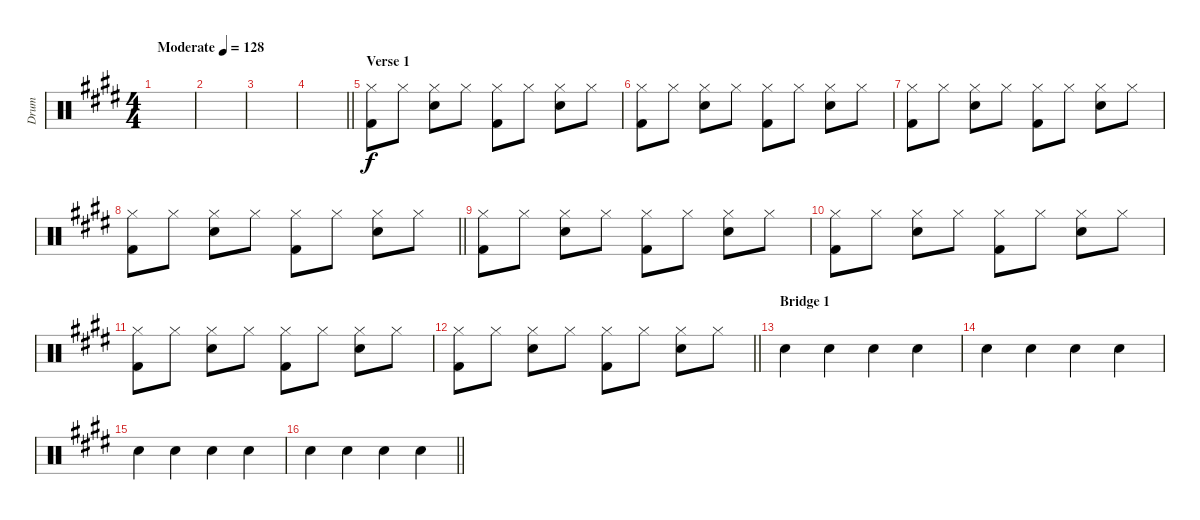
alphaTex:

\track ("Drum" "Drum") {instrument percussion}
\staff {score}
\articulation defaults
\ts (4 4)
\tempo (128 "Moderate")
\clef neutral
\ks c#minor
|
|
|
\barLineRight lightlight
|
\section ("" "Verse 1")
("Hi-Hat (closed)" "Kick (hit) 2").8 "Hi-Hat (closed)".8 ("Hi-Hat (closed)" "Snare (hit) 2").8 "Hi-Hat (closed)".8 ("Hi-Hat (closed)" "Kick (hit) 2").8 "Hi-Hat (closed)".8 ("Hi-Hat (closed)" "Snare (hit) 2").8 "Hi-Hat (closed)".8 |
("Hi-Hat (closed)" "Kick (hit) 2").8 "Hi-Hat (closed)".8 ("Hi-Hat (closed)" "Snare (hit) 2").8 "Hi-Hat (closed)".8 ("Hi-Hat (closed)" "Kick (hit) 2").8 "Hi-Hat (closed)".8 ("Hi-Hat (closed)" "Snare (hit) 2").8 "Hi-Hat (closed)".8 |
("Hi-Hat (closed)" "Kick (hit) 2").8 "Hi-Hat (closed)".8 ("Hi-Hat (closed)" "Snare (hit) 2").8 "Hi-Hat (closed)".8 ("Hi-Hat (closed)" "Kick (hit) 2").8 "Hi-Hat (closed)".8 ("Hi-Hat (closed)" "Snare (hit) 2").8 "Hi-Hat (closed)".8 |
\barLineRight lightlight
("Hi-Hat (closed)" "Kick (hit) 2").8 "Hi-Hat (closed)".8 ("Hi-Hat (closed)" "Snare (hit) 2").8 "Hi-Hat (closed)".8 ("Hi-Hat (closed)" "Kick (hit) 2").8 "Hi-Hat (closed)".8 ("Hi-Hat (closed)" "Snare (hit) 2").8 "Hi-Hat (closed)".8 |
("Hi-Hat (closed)" "Kick (hit) 2").8 "Hi-Hat (closed)".8 ("Hi-Hat (closed)" "Snare (hit) 2").8 "Hi-Hat (closed)".8 ("Hi-Hat (closed)" "Kick (hit) 2").8 "Hi-Hat (closed)".8 ("Hi-Hat (closed)" "Snare (hit) 2").8 "Hi-Hat (closed)".8 |
("Hi-Hat (closed)" "Kick (hit) 2").8 "Hi-Hat (closed)".8 ("Hi-Hat (closed)" "Snare (hit) 2").8 "Hi-Hat (closed)".8 ("Hi-Hat (closed)" "Kick (hit) 2").8 "Hi-Hat (closed)".8 ("Hi-Hat (closed)" "Snare (hit) 2").8 "Hi-Hat (closed)".8 |
("Hi-Hat (closed)" "Kick (hit) 2").8 "Hi-Hat (closed)".8 ("Hi-Hat (closed)" "Snare (hit) 2").8 "Hi-Hat (closed)".8 ("Hi-Hat (closed)" "Kick (hit) 2").8 "Hi-Hat (closed)".8 ("Hi-Hat (closed)" "Snare (hit) 2").8 "Hi-Hat (closed)".8 |
\barLineRight lightlight
("Hi-Hat (closed)" "Kick (hit) 2").8 "Hi-Hat (closed)".8 ("Hi-Hat (closed)" "Snare (hit) 2").8 "Hi-Hat (closed)".8 ("Hi-Hat (closed)" "Kick (hit) 2").8 "Hi-Hat (closed)".8 ("Hi-Hat (closed)" "Snare (hit) 2").8 "Hi-Hat (closed)".8 |
\section ("" "Bridge 1")
"Snare (hit) 2".4 "Snare (hit) 2".4 "Snare (hit) 2".4 "Snare (hit) 2".4 |
"Snare (hit) 2".4 "Snare (hit) 2".4 "Snare (hit) 2".4 "Snare (hit) 2".4 |
"Snare (hit) 2".4 "Snare (hit) 2".4 "Snare (hit) 2".4 "Snare (hit) 2".4 |
\barLineRight lightlight "Snare (hit) 2".4 "Snare (hit) 2".4 "Snare (hit) 2".4 "Snare (hit) 2".4
